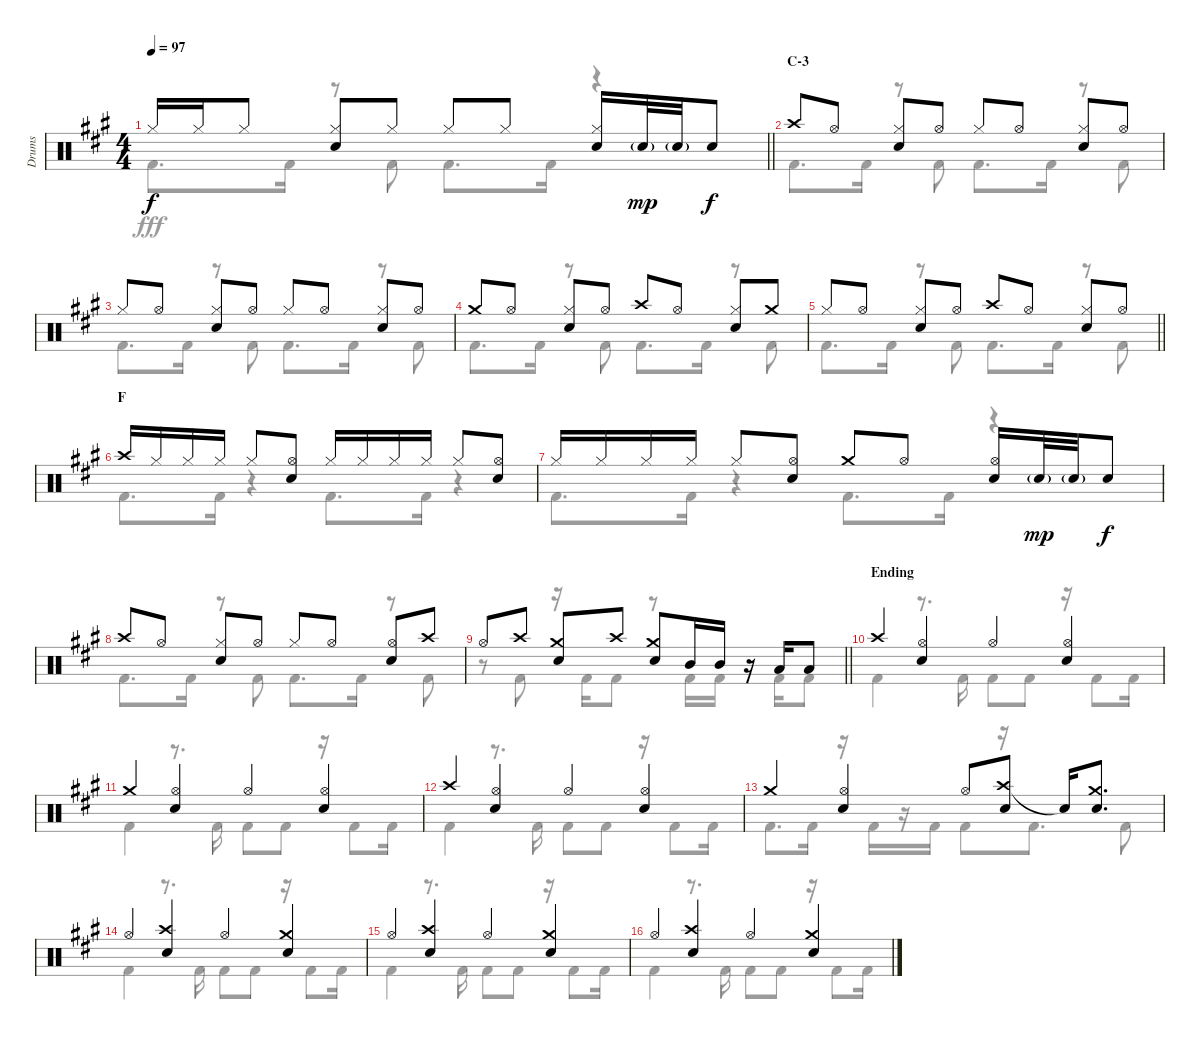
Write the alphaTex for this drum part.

\track ("Drums" "Drums") {instrument percussion}
\staff {score}
\articulation defaults
\voice
\ts (4 4)
\tempo 97
\clef neutral
\barLineRight lightlight
\ks a "Hi-Hat (closed)".16{dy f} "Hi-Hat (closed)".16 "Hi-Hat (closed)".8
("Hi-Hat (closed)" "Snare (hit) 2").8 "Hi-Hat (closed)".8 "Hi-Hat (closed)".8 "Hi-Hat (closed)".8 ("Hi-Hat (closed)" "Snare (hit) 2").16 "Snare (hit) 2"{g}.32{dy mp} "Snare (hit) 2"{g}.32 "Snare (hit) 2".8{dy f} |
\section ("" "C-3")
"Crash high (hit)".8 "Hi-Hat (open)".8 ("Hi-Hat (closed)" "Snare (hit) 2").8 "Hi-Hat (open)".8 "Hi-Hat (closed)".8 "Hi-Hat (open)".8 ("Hi-Hat (closed)" "Snare (hit) 2").8 "Hi-Hat (open)".8 |
"Hi-Hat (closed)".8 "Hi-Hat (open)".8 ("Hi-Hat (closed)" "Snare (hit) 2").8 "Hi-Hat (open)".8 "Hi-Hat (closed)".8 "Hi-Hat (open)".8 ("Hi-Hat (closed)" "Snare (hit) 2").8 "Hi-Hat (open)".8 |
"Crash medium (hit)".8 "Hi-Hat (open)".8 ("Hi-Hat (closed)" "Snare (hit) 2").8 "Hi-Hat (open)".8 "Crash high (hit)".8 "Hi-Hat (open)".8 ("Hi-Hat (closed)" "Snare (hit) 2").8 "Crash medium (hit)".8 |
\barLineRight lightlight "Hi-Hat (closed)".8 "Hi-Hat (open)".8
("Hi-Hat (closed)" "Snare (hit) 2").8 "Hi-Hat (open)".8 "Crash high (hit)".8 "Hi-Hat (open)".8 ("Hi-Hat (closed)" "Snare (hit) 2").8 "Hi-Hat (open)".8 |
\section ("" "F")
"Crash high (hit)".16 "Hi-Hat (closed)".16 "Hi-Hat (closed)".16 "Hi-Hat (closed)".16 "Hi-Hat (closed)".8 ("Hi-Hat (open)" "Snare (hit) 2").8 "Hi-Hat (closed)".16 "Hi-Hat (closed)".16 "Hi-Hat (closed)".16 "Hi-Hat (closed)".16 "Hi-Hat (closed)".8 ("Hi-Hat (open)" "Snare (hit) 2").8 |
"Hi-Hat (closed)".16 "Hi-Hat (closed)".16 "Hi-Hat (closed)".16 "Hi-Hat (closed)".16 "Hi-Hat (closed)".8 ("Hi-Hat (open)" "Snare (hit) 2").8 "Crash medium (hit)".8 "Hi-Hat (open)".8 ("Hi-Hat (open)" "Snare (hit) 2").16 "Snare (hit) 2"{g}.32{dy mp} "Snare (hit) 2"{g}.32 "Snare (hit) 2".8{dy f} |
"Crash high (hit)".8 "Hi-Hat (open)".8 ("Hi-Hat (closed)" "Snare (hit) 2").8 "Hi-Hat (open)".8 "Hi-Hat (closed)".8 "Hi-Hat (open)".8 ("Hi-Hat (open)" "Snare (hit) 2").8 "Crash high (hit)".8 |
\barLineRight lightlight "Hi-Hat (open)".8 "Crash high (hit)".8
("Crash medium (hit)" "Snare (hit) 2").8 "Crash high (hit)".8 ("Crash medium (hit)" "Snare (hit) 2").8 "Mid Tom (hit)".16 "Mid Tom (hit)".16 r.16 "Low Tom (hit)".16 "Low Tom (hit)".8 |
\section ("" "Ending")
"Crash high (hit)".4 ("Hi-Hat (open)" "Snare (hit) 2").4 "Hi-Hat (open)".4 ("Hi-Hat (open)" "Snare (hit) 2").4 |
"Crash medium (hit)".4 ("Hi-Hat (open)" "Snare (hit) 2").4 "Hi-Hat (open)".4 ("Hi-Hat (open)" "Snare (hit) 2").4 |
"Crash high (hit)".4 ("Hi-Hat (open)" "Snare (hit) 2").4 "Hi-Hat (open)".4 ("Hi-Hat (open)" "Snare (hit) 2").4 |
"Crash medium (hit)".4 ("Hi-Hat (open)" "Snare (hit) 2").4 "Hi-Hat (open)".8 ("Crash high (hit)" "Snare (hit) 2").8 "Snare (hit)"{t}.16 ("Crash medium (hit)" "Snare (hit) 2").8{d} |
"Hi-Hat (open)".4 ("Crash high (hit)" "Snare (hit) 2").4 "Hi-Hat (open)".4 ("Crash medium (hit)" "Snare (hit) 2").4 |
"Hi-Hat (open)".4 ("Crash high (hit)" "Snare (hit) 2").4 "Hi-Hat (open)".4 ("Crash medium (hit)" "Snare (hit) 2").4 |
"Hi-Hat (open)".4 ("Crash high (hit)" "Snare (hit) 2").4 "Hi-Hat (open)".4 ("Crash medium (hit)" "Snare (hit) 2").4
\voice
\clef neutral
\ottava regular
\simile none
\barLineRight lightlight
\ks a "Kick (hit) 2".8{d dy fff} "Kick (hit) 2".16
r.8 "Kick (hit) 2".8 "Kick (hit) 2".8{d} "Kick (hit) 2".16 r.4 |
"Kick (hit) 2".8{d} "Kick (hit) 2".16 r.8 "Kick (hit) 2".8 "Kick (hit) 2".8{d} "Kick (hit) 2".16 r.8 "Kick (hit) 2".8 |
"Kick (hit) 2".8{d} "Kick (hit) 2".16 r.8 "Kick (hit) 2".8 "Kick (hit) 2".8{d} "Kick (hit) 2".16 r.8 "Kick (hit) 2".8 |
"Kick (hit) 2".8{d} "Kick (hit) 2".16 r.8 "Kick (hit) 2".8 "Kick (hit) 2".8{d} "Kick (hit) 2".16 r.8 "Kick (hit) 2".8 |
\barLineRight lightlight "Kick (hit) 2".8{d} "Kick (hit) 2".16
r.8 "Kick (hit) 2".8 "Kick (hit) 2".8{d} "Kick (hit) 2".16 r.8 "Kick (hit) 2".8 |
"Kick (hit) 2".8{d} "Kick (hit) 2".16 r.4 "Kick (hit) 2".8{d} "Kick (hit) 2".16 r.4 |
"Kick (hit) 2".8{d} "Kick (hit) 2".16 r.4 "Kick (hit) 2".8{d} "Kick (hit) 2".16 r.4 |
"Kick (hit) 2".8{d} "Kick (hit) 2".16 r.8 "Kick (hit) 2".8 "Kick (hit) 2".8{d} "Kick (hit) 2".16 r.8 "Kick (hit) 2".8 |
\barLineRight lightlight
r.8 "Kick (hit) 2".8 r.16 "Kick (hit) 2".16 "Kick (hit) 2".8 r.8 "Kick (hit) 2".16 "Kick (hit) 2".16 r.16 "Kick (hit) 2".16 "Kick (hit) 2".8 |
"Kick (hit) 2".4 r.8{d} "Kick (hit) 2".16 "Kick (hit) 2".8 "Kick (hit) 2".8 r.16 "Kick (hit) 2".8 "Kick (hit) 2".16 |
"Kick (hit) 2".4 r.8{d} "Kick (hit) 2".16 "Kick (hit) 2".8 "Kick (hit) 2".8 r.16 "Kick (hit) 2".8 "Kick (hit) 2".16 |
"Kick (hit) 2".4 r.8{d} "Kick (hit) 2".16 "Kick (hit) 2".8 "Kick (hit) 2".8 r.16 "Kick (hit) 2".8 "Kick (hit) 2".16 |
"Kick (hit) 2".8{d} "Kick (hit) 2".16 r.16 "Kick (hit) 2".16 r.16 "Kick (hit) 2".16 "Kick (hit) 2".8 r.16 "Kick (hit) 2".8{d} "Kick (hit) 2".8 |
"Kick (hit) 2".4 r.8{d} "Kick (hit) 2".16 "Kick (hit) 2".8 "Kick (hit) 2".8 r.16 "Kick (hit) 2".8 "Kick (hit) 2".16 |
"Kick (hit) 2".4 r.8{d} "Kick (hit) 2".16 "Kick (hit) 2".8 "Kick (hit) 2".8 r.16 "Kick (hit) 2".8 "Kick (hit) 2".16 |
"Kick (hit) 2".4 r.8{d} "Kick (hit) 2".16 "Kick (hit) 2".8 "Kick (hit) 2".8 r.16 "Kick (hit) 2".8 "Kick (hit) 2".16
